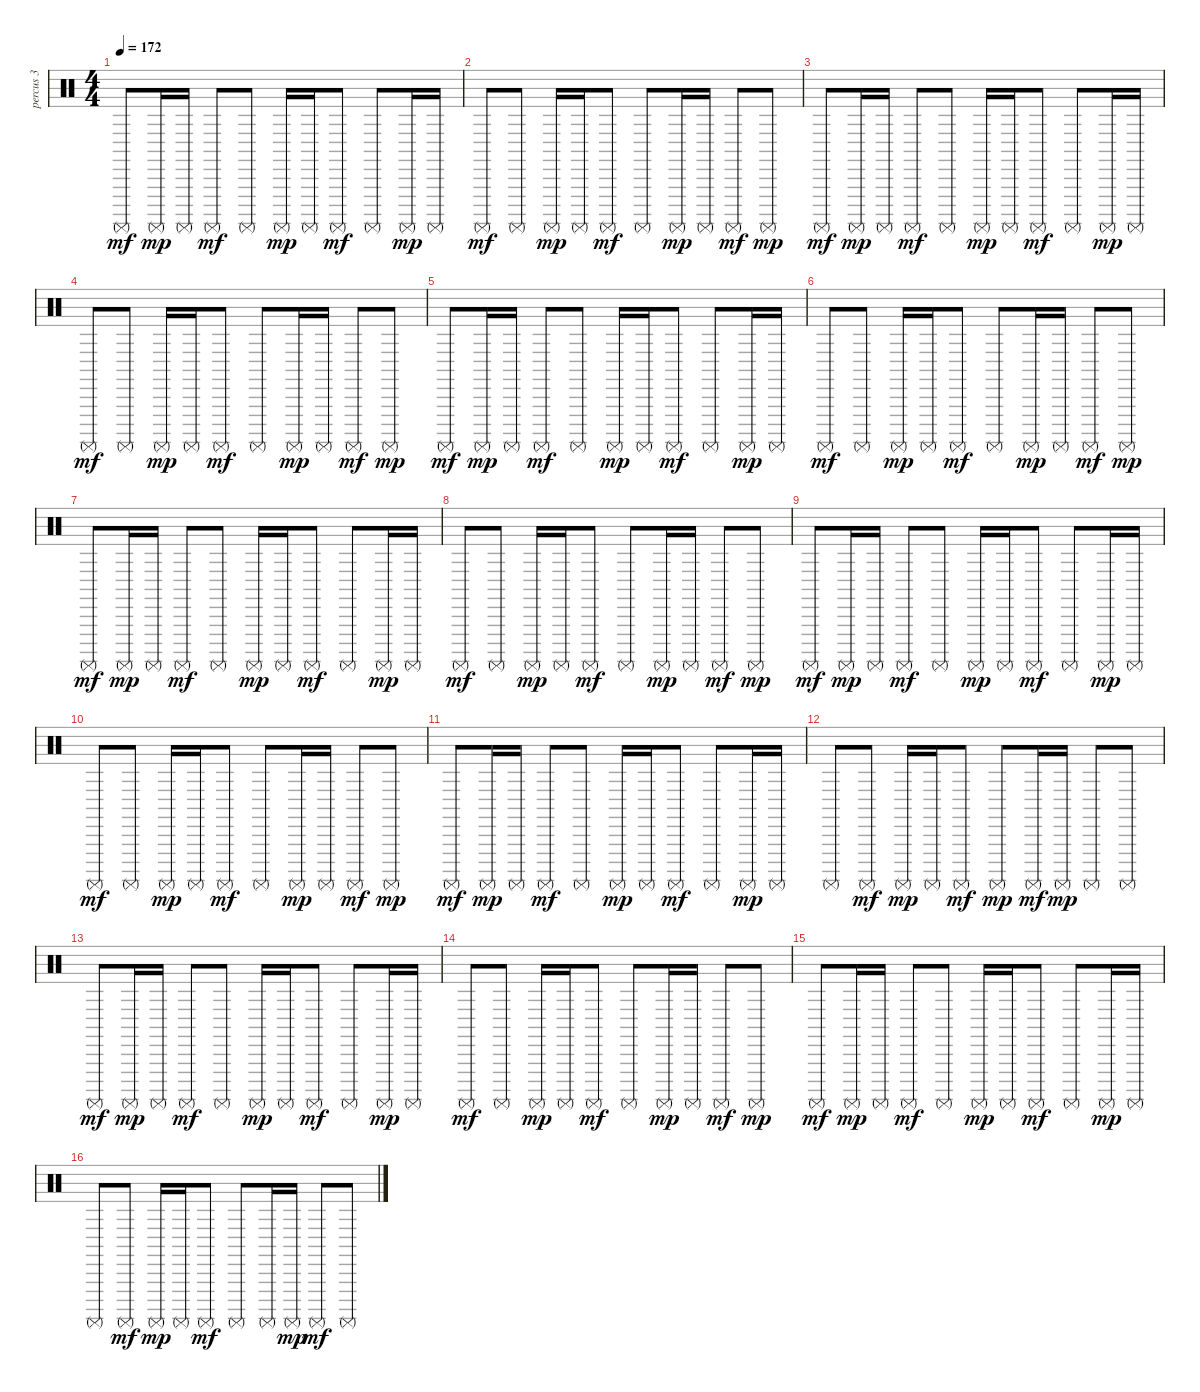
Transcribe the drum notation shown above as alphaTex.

\track ("percus 3" "percus 3") {instrument percussion}
\staff {score}
\articulation defaults
\ts (4 4)
\tempo 172
\clef neutral
\ks c "Surdo (mute)".8{dy mf} "Surdo (mute)".16{dy mp} "Surdo (mute)".16 "Surdo (mute)".8{dy mf} "Surdo (mute)".8 "Surdo (mute)".16{dy mp} "Surdo (mute)".16 "Surdo (mute)".8{dy mf} "Surdo (mute)".8 "Surdo (mute)".16{dy mp} "Surdo (mute)".16
|
"Surdo (mute)".8{dy mf} "Surdo (mute)".8 "Surdo (mute)".16{dy mp} "Surdo (mute)".16 "Surdo (mute)".8{dy mf} "Surdo (mute)".8 "Surdo (mute)".16{dy mp} "Surdo (mute)".16 "Surdo (mute)".8{dy mf} "Surdo (mute)".8{dy mp} |
"Surdo (mute)".8{dy mf} "Surdo (mute)".16{dy mp} "Surdo (mute)".16 "Surdo (mute)".8{dy mf} "Surdo (mute)".8 "Surdo (mute)".16{dy mp} "Surdo (mute)".16 "Surdo (mute)".8{dy mf} "Surdo (mute)".8 "Surdo (mute)".16{dy mp} "Surdo (mute)".16 |
"Surdo (mute)".8{dy mf} "Surdo (mute)".8 "Surdo (mute)".16{dy mp} "Surdo (mute)".16 "Surdo (mute)".8{dy mf} "Surdo (mute)".8 "Surdo (mute)".16{dy mp} "Surdo (mute)".16 "Surdo (mute)".8{dy mf} "Surdo (mute)".8{dy mp} |
"Surdo (mute)".8{dy mf} "Surdo (mute)".16{dy mp} "Surdo (mute)".16 "Surdo (mute)".8{dy mf} "Surdo (mute)".8 "Surdo (mute)".16{dy mp} "Surdo (mute)".16 "Surdo (mute)".8{dy mf} "Surdo (mute)".8 "Surdo (mute)".16{dy mp} "Surdo (mute)".16 |
"Surdo (mute)".8{dy mf} "Surdo (mute)".8 "Surdo (mute)".16{dy mp} "Surdo (mute)".16 "Surdo (mute)".8{dy mf} "Surdo (mute)".8 "Surdo (mute)".16{dy mp} "Surdo (mute)".16 "Surdo (mute)".8{dy mf} "Surdo (mute)".8{dy mp} |
"Surdo (mute)".8{dy mf} "Surdo (mute)".16{dy mp} "Surdo (mute)".16 "Surdo (mute)".8{dy mf} "Surdo (mute)".8 "Surdo (mute)".16{dy mp} "Surdo (mute)".16 "Surdo (mute)".8{dy mf} "Surdo (mute)".8 "Surdo (mute)".16{dy mp} "Surdo (mute)".16 |
"Surdo (mute)".8{dy mf} "Surdo (mute)".8 "Surdo (mute)".16{dy mp} "Surdo (mute)".16 "Surdo (mute)".8{dy mf} "Surdo (mute)".8 "Surdo (mute)".16{dy mp} "Surdo (mute)".16 "Surdo (mute)".8{dy mf} "Surdo (mute)".8{dy mp} |
"Surdo (mute)".8{dy mf} "Surdo (mute)".16{dy mp} "Surdo (mute)".16 "Surdo (mute)".8{dy mf} "Surdo (mute)".8 "Surdo (mute)".16{dy mp} "Surdo (mute)".16 "Surdo (mute)".8{dy mf} "Surdo (mute)".8 "Surdo (mute)".16{dy mp} "Surdo (mute)".16 |
"Surdo (mute)".8{dy mf} "Surdo (mute)".8 "Surdo (mute)".16{dy mp} "Surdo (mute)".16 "Surdo (mute)".8{dy mf} "Surdo (mute)".8 "Surdo (mute)".16{dy mp} "Surdo (mute)".16 "Surdo (mute)".8{dy mf} "Surdo (mute)".8{dy mp} |
"Surdo (mute)".8{dy mf} "Surdo (mute)".16{dy mp} "Surdo (mute)".16 "Surdo (mute)".8{dy mf} "Surdo (mute)".8 "Surdo (mute)".16{dy mp} "Surdo (mute)".16 "Surdo (mute)".8{dy mf} "Surdo (mute)".8 "Surdo (mute)".16{dy mp} "Surdo (mute)".16 |
"Surdo (mute)".8 "Surdo (mute)".8{dy mf} "Surdo (mute)".16{dy mp} "Surdo (mute)".16 "Surdo (mute)".8{dy mf} "Surdo (mute)".8{dy mp} "Surdo (mute)".16{dy mf} "Surdo (mute)".16{dy mp} "Surdo (mute)".8 "Surdo (mute)".8 |
"Surdo (mute)".8{dy mf} "Surdo (mute)".16{dy mp} "Surdo (mute)".16 "Surdo (mute)".8{dy mf} "Surdo (mute)".8 "Surdo (mute)".16{dy mp} "Surdo (mute)".16 "Surdo (mute)".8{dy mf} "Surdo (mute)".8 "Surdo (mute)".16{dy mp} "Surdo (mute)".16 |
"Surdo (mute)".8{dy mf} "Surdo (mute)".8 "Surdo (mute)".16{dy mp} "Surdo (mute)".16 "Surdo (mute)".8{dy mf} "Surdo (mute)".8 "Surdo (mute)".16{dy mp} "Surdo (mute)".16 "Surdo (mute)".8{dy mf} "Surdo (mute)".8{dy mp} |
"Surdo (mute)".8{dy mf} "Surdo (mute)".16{dy mp} "Surdo (mute)".16 "Surdo (mute)".8{dy mf} "Surdo (mute)".8 "Surdo (mute)".16{dy mp} "Surdo (mute)".16 "Surdo (mute)".8{dy mf} "Surdo (mute)".8 "Surdo (mute)".16{dy mp} "Surdo (mute)".16 |
"Surdo (mute)".8 "Surdo (mute)".8{dy mf} "Surdo (mute)".16{dy mp} "Surdo (mute)".16 "Surdo (mute)".8{dy mf} "Surdo (mute)".8 "Surdo (mute)".16 "Surdo (mute)".16{dy mp} "Surdo (mute)".8{dy mf} "Surdo (mute)".8
